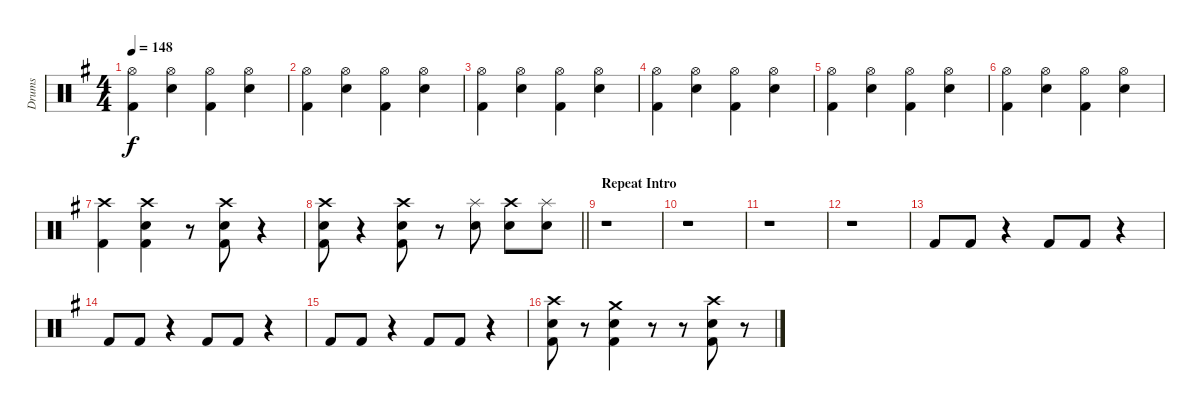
\track ("Drums" "Drums") {instrument percussion}
\staff {score}
\articulation defaults
\ts (4 4)
\tempo 148
\clef neutral
\ks g
("Kick (hit) 2" "Hi-Hat (open)").4{dy f} ("Snare (hit) 2" "Hi-Hat (open)").4 ("Kick (hit) 2" "Hi-Hat (open)").4 ("Snare (hit) 2" "Hi-Hat (open)").4 |
("Kick (hit) 2" "Hi-Hat (open)").4 ("Snare (hit) 2" "Hi-Hat (open)").4 ("Kick (hit) 2" "Hi-Hat (open)").4 ("Snare (hit) 2" "Hi-Hat (open)").4 |
("Kick (hit) 2" "Hi-Hat (open)").4 ("Snare (hit) 2" "Hi-Hat (open)").4 ("Kick (hit) 2" "Hi-Hat (open)").4 ("Snare (hit) 2" "Hi-Hat (open)").4 |
("Kick (hit) 2" "Hi-Hat (open)").4 ("Snare (hit) 2" "Hi-Hat (open)").4 ("Kick (hit) 2" "Hi-Hat (open)").4 ("Snare (hit) 2" "Hi-Hat (open)").4 |
("Kick (hit) 2" "Hi-Hat (open)").4 ("Snare (hit) 2" "Hi-Hat (open)").4 ("Kick (hit) 2" "Hi-Hat (open)").4 ("Snare (hit) 2" "Hi-Hat (open)").4 |
("Kick (hit) 2" "Hi-Hat (open)").4 ("Snare (hit) 2" "Hi-Hat (open)").4 ("Kick (hit) 2" "Hi-Hat (open)").4 ("Snare (hit) 2" "Hi-Hat (open)").4 |
("Kick (hit) 2" "Crash high (hit)").4 ("Snare (hit) 2" "Crash high (hit)" "Kick (hit) 2").4 r.8 ("Snare (hit) 2" "Crash high (hit)" "Kick (hit) 2").8 r.4 |
\barLineRight lightlight
("Snare (hit) 2" "Crash high (hit)" "Kick (hit) 2").8 r.4 ("Snare (hit) 2" "Crash high (hit)" "Kick (hit) 2").8 r.8 ("Snare (hit) 2" "Splash (hit)").8 ("Snare (hit) 2" "Crash high (hit)").8 ("Snare (hit) 2" "Splash (hit)").8 |
\section ("" "Repeat Intro")
r.1 |
r.1 |
r.1 |
r.1 |
"Kick (hit) 2".8 "Kick (hit) 2".8 r.4 "Kick (hit) 2".8 "Kick (hit) 2".8 r.4 |
"Kick (hit) 2".8 "Kick (hit) 2".8 r.4 "Kick (hit) 2".8 "Kick (hit) 2".8 r.4 |
"Kick (hit) 2".8 "Kick (hit) 2".8 r.4 "Kick (hit) 2".8 "Kick (hit) 2".8 r.4 |
("Kick (hit) 2" "Crash high (hit)" "Snare (hit) 2").8 r.8 ("Kick (hit) 2" "Crash medium (hit)" "Snare (hit) 2").4 r.8 r.8 ("Kick (hit) 2" "Crash high (hit)" "Snare (hit) 2").8 r.8
